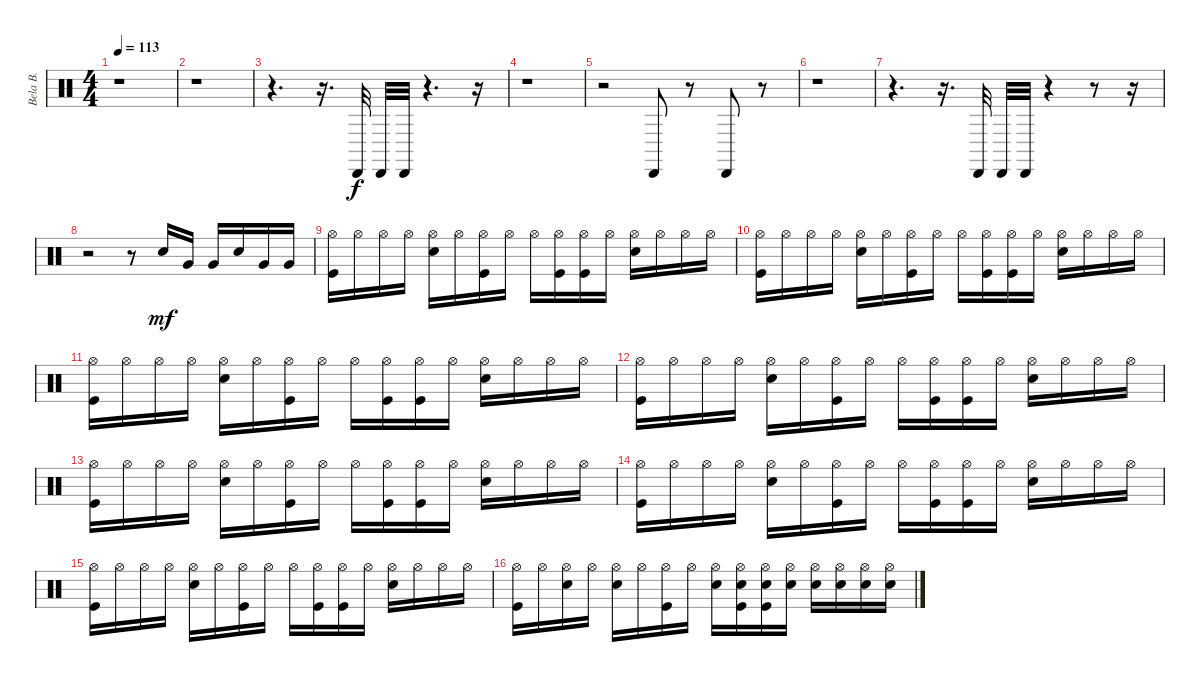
\track ("Bela B." "Bela B.") {instrument percussion}
\staff {score}
\articulation defaults
\ts (4 4)
\tempo 113
\clef neutral
\ks c
r.1{dy f} |
r.1 |
r.4{d} r.16{d} "Cabasa (hit)".32 "Cabasa (hit)".32 "Cabasa (hit)".32 r.4{d} r.16 |
r.1 |
r.2 "Cabasa (hit)".8 r.8 "Cabasa (hit)".8 r.8 |
r.1 |
r.4{d} r.16{d} "Cabasa (hit)".32 "Cabasa (hit)".32 "Cabasa (hit)".32 r.4 r.8 r.16 |
r.2 r.8 "Snare (hit) 2".16{dy mf} "Very Low Tom (hit)".16 "Very Low Tom (hit)".16 "Snare (hit) 2".16 "Very Low Tom (hit)".16 "Very Low Tom (hit)".16 |
("Hi-Hat (open)" "Kick (hit)").16 "Hi-Hat (open)".16 "Hi-Hat (open)".16 "Hi-Hat (open)".16 ("Hi-Hat (open)" "Snare (hit) 2").16 "Hi-Hat (open)".16 ("Hi-Hat (open)" "Kick (hit)").16 "Hi-Hat (open)".16 "Hi-Hat (open)".16 ("Hi-Hat (open)" "Kick (hit)").16 ("Hi-Hat (open)" "Kick (hit)").16 "Hi-Hat (open)".16 ("Hi-Hat (open)" "Snare (hit) 2").16 "Hi-Hat (open)".16 "Hi-Hat (open)".16 "Hi-Hat (open)".16 |
("Kick (hit)" "Hi-Hat (open)").16 "Hi-Hat (open)".16 "Hi-Hat (open)".16 "Hi-Hat (open)".16 ("Snare (hit) 2" "Hi-Hat (open)").16 "Hi-Hat (open)".16 ("Kick (hit)" "Hi-Hat (open)").16 "Hi-Hat (open)".16 "Hi-Hat (open)".16 ("Hi-Hat (open)" "Kick (hit)").16 ("Hi-Hat (open)" "Kick (hit)").16 "Hi-Hat (open)".16 ("Snare (hit) 2" "Hi-Hat (open)").16 "Hi-Hat (open)".16 "Hi-Hat (open)".16 "Hi-Hat (open)".16 |
("Kick (hit)" "Hi-Hat (open)").16 "Hi-Hat (open)".16 "Hi-Hat (open)".16 "Hi-Hat (open)".16 ("Hi-Hat (open)" "Snare (hit) 2").16 "Hi-Hat (open)".16 ("Kick (hit)" "Hi-Hat (open)").16 "Hi-Hat (open)".16 "Hi-Hat (open)".16 ("Hi-Hat (open)" "Kick (hit)").16 ("Kick (hit)" "Hi-Hat (open)").16 "Hi-Hat (open)".16 ("Hi-Hat (open)" "Snare (hit) 2").16 "Hi-Hat (open)".16 "Hi-Hat (open)".16 "Hi-Hat (open)".16 |
("Kick (hit)" "Hi-Hat (open)").16 "Hi-Hat (open)".16 "Hi-Hat (open)".16 "Hi-Hat (open)".16 ("Snare (hit) 2" "Hi-Hat (open)").16 "Hi-Hat (open)".16 ("Kick (hit)" "Hi-Hat (open)").16 "Hi-Hat (open)".16 "Hi-Hat (open)".16 ("Hi-Hat (open)" "Kick (hit)").16 ("Kick (hit)" "Hi-Hat (open)").16 "Hi-Hat (open)".16 ("Snare (hit) 2" "Hi-Hat (open)").16 "Hi-Hat (open)".16 "Hi-Hat (open)".16 "Hi-Hat (open)".16 |
("Kick (hit)" "Hi-Hat (open)").16 "Hi-Hat (open)".16 "Hi-Hat (open)".16 "Hi-Hat (open)".16 ("Hi-Hat (open)" "Snare (hit) 2").16 "Hi-Hat (open)".16 ("Kick (hit)" "Hi-Hat (open)").16 "Hi-Hat (open)".16 "Hi-Hat (open)".16 ("Hi-Hat (open)" "Kick (hit)").16 ("Kick (hit)" "Hi-Hat (open)").16 "Hi-Hat (open)".16 ("Snare (hit) 2" "Hi-Hat (open)").16 "Hi-Hat (open)".16 "Hi-Hat (open)".16 "Hi-Hat (open)".16 |
("Kick (hit)" "Hi-Hat (open)").16 "Hi-Hat (open)".16 "Hi-Hat (open)".16 "Hi-Hat (open)".16 ("Snare (hit) 2" "Hi-Hat (open)").16 "Hi-Hat (open)".16 ("Kick (hit)" "Hi-Hat (open)").16 "Hi-Hat (open)".16 "Hi-Hat (open)".16 ("Hi-Hat (open)" "Kick (hit)").16 ("Kick (hit)" "Hi-Hat (open)").16 "Hi-Hat (open)".16 ("Snare (hit) 2" "Hi-Hat (open)").16 "Hi-Hat (open)".16 "Hi-Hat (open)".16 "Hi-Hat (open)".16 |
("Kick (hit)" "Hi-Hat (open)").16 "Hi-Hat (open)".16 "Hi-Hat (open)".16 "Hi-Hat (open)".16 ("Snare (hit) 2" "Hi-Hat (open)").16 "Hi-Hat (open)".16 ("Hi-Hat (open)" "Kick (hit)").16 "Hi-Hat (open)".16 "Hi-Hat (open)".16 ("Kick (hit)" "Hi-Hat (open)").16 ("Hi-Hat (open)" "Kick (hit)").16 "Hi-Hat (open)".16 ("Snare (hit) 2" "Hi-Hat (open)").16 "Hi-Hat (open)".16 "Hi-Hat (open)".16 "Hi-Hat (open)".16 |
("Kick (hit)" "Hi-Hat (open)").16 "Hi-Hat (open)".16 ("Snare (hit) 2" "Hi-Hat (open)").16 "Hi-Hat (open)".16 ("Hi-Hat (open)" "Snare (hit) 2").16 "Hi-Hat (open)".16 ("Hi-Hat (open)" "Kick (hit)").16 "Hi-Hat (open)".16 ("Hi-Hat (open)" "Snare (hit) 2").16 ("Snare (hit) 2" "Kick (hit)" "Hi-Hat (open)").16 ("Snare (hit) 2" "Hi-Hat (open)" "Kick (hit)").16 ("Hi-Hat (open)" "Snare (hit) 2").16 ("Hi-Hat (open)" "Snare (hit) 2").16 ("Hi-Hat (open)" "Snare (hit) 2").16 ("Hi-Hat (open)" "Snare (hit) 2").16 ("Hi-Hat (open)" "Snare (hit) 2").16
